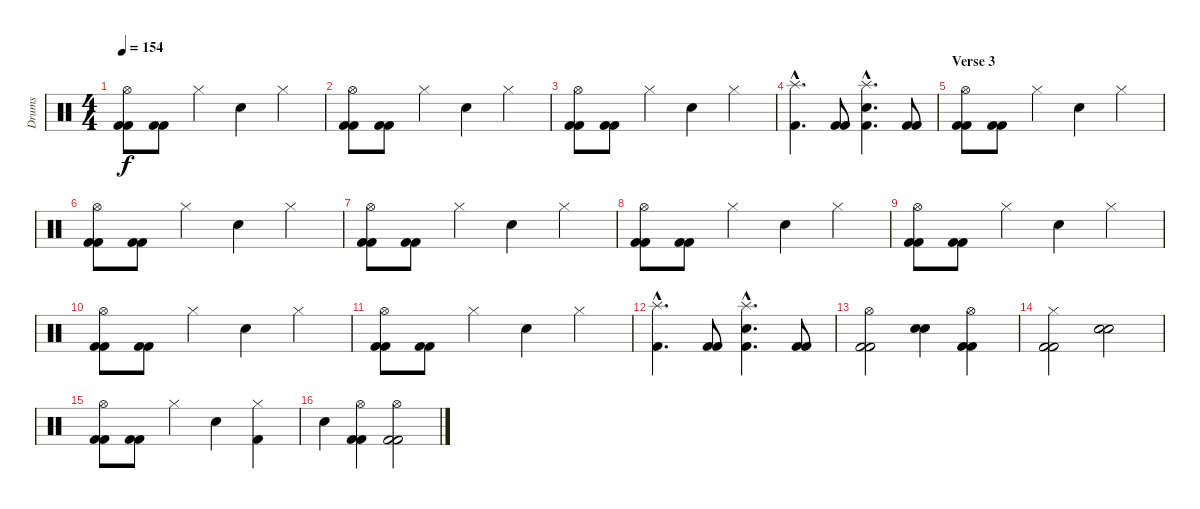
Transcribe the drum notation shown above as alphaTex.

\track ("Drums" "Drums") {instrument percussion}
\staff {score}
\articulation defaults
\ts (4 4)
\tempo 154
\clef neutral
\ks c
("Hi-Hat (open)" "Kick (hit) 2" "Kick (hit) 2").8{dy f} ("Kick (hit) 2" "Kick (hit) 2").8 "Hi-Hat (closed)".4 "Snare (hit) 2".4 "Hi-Hat (closed)".4 |
("Hi-Hat (open)" "Kick (hit) 2" "Kick (hit) 2").8 ("Kick (hit) 2" "Kick (hit) 2").8 "Hi-Hat (closed)".4 "Snare (hit) 2".4 "Hi-Hat (closed)".4 |
("Hi-Hat (open)" "Kick (hit) 2" "Kick (hit) 2").8 ("Kick (hit) 2" "Kick (hit) 2").8 "Hi-Hat (closed)".4 "Snare (hit) 2".4 "Hi-Hat (closed)".4 |
("Splash (hit)"{hac} "Kick (hit) 2"{hac}).4{d} ("Kick (hit) 2" "Kick (hit) 2").8 ("Splash (hit)"{hac} "Snare (hit) 2"{hac} "Kick (hit) 2"{hac}).4{d} ("Kick (hit) 2" "Kick (hit) 2").8 |
\section ("" "Verse 3")
("Hi-Hat (open)" "Kick (hit) 2" "Kick (hit) 2").8 ("Kick (hit) 2" "Kick (hit) 2").8 "Hi-Hat (closed)".4 "Snare (hit) 2".4 "Hi-Hat (closed)".4 |
("Hi-Hat (open)" "Kick (hit) 2" "Kick (hit) 2").8 ("Kick (hit) 2" "Kick (hit) 2").8 "Hi-Hat (closed)".4 "Snare (hit) 2".4 "Hi-Hat (closed)".4 |
("Hi-Hat (open)" "Kick (hit) 2" "Kick (hit) 2").8 ("Kick (hit) 2" "Kick (hit) 2").8 "Hi-Hat (closed)".4 "Snare (hit) 2".4 "Hi-Hat (closed)".4 |
("Hi-Hat (open)" "Kick (hit) 2" "Kick (hit) 2").8 ("Kick (hit) 2" "Kick (hit) 2").8 "Hi-Hat (closed)".4 "Snare (hit) 2".4 "Hi-Hat (closed)".4 |
("Hi-Hat (open)" "Kick (hit) 2" "Kick (hit) 2").8 ("Kick (hit) 2" "Kick (hit) 2").8 "Hi-Hat (closed)".4 "Snare (hit) 2".4 "Hi-Hat (closed)".4 |
("Hi-Hat (open)" "Kick (hit) 2" "Kick (hit) 2").8 ("Kick (hit) 2" "Kick (hit) 2").8 "Hi-Hat (closed)".4 "Snare (hit) 2".4 "Hi-Hat (closed)".4 |
("Hi-Hat (open)" "Kick (hit) 2" "Kick (hit) 2").8 ("Kick (hit) 2" "Kick (hit) 2").8 "Hi-Hat (closed)".4 "Snare (hit) 2".4 "Hi-Hat (closed)".4 |
("Splash (hit)"{hac} "Kick (hit) 2"{hac}).4{d} ("Kick (hit) 2" "Kick (hit) 2").8 ("Splash (hit)"{hac} "Snare (hit) 2"{hac} "Kick (hit) 2"{hac}).4{d} ("Kick (hit) 2" "Kick (hit) 2").8 |
("Hi-Hat (open)" "Kick (hit) 2" "Kick (hit) 2").2 ("Snare (hit) 2" "Snare (hit) 2").4 ("Hi-Hat (open)" "Kick (hit) 2" "Kick (hit) 2").4 |
("Hi-Hat (closed)" "Kick (hit) 2" "Kick (hit) 2").2 ("Snare (hit) 2" "Snare (hit) 2").2 |
("Hi-Hat (open)" "Kick (hit) 2" "Kick (hit) 2").8 ("Kick (hit) 2" "Kick (hit) 2").8 "Hi-Hat (closed)".4 "Snare (hit) 2".4 ("Hi-Hat (closed)" "Kick (hit) 2").4 |
"Snare (hit) 2".4 ("Hi-Hat (open)" "Kick (hit) 2" "Kick (hit) 2").4 ("Hi-Hat (open)" "Kick (hit) 2" "Kick (hit) 2").2
